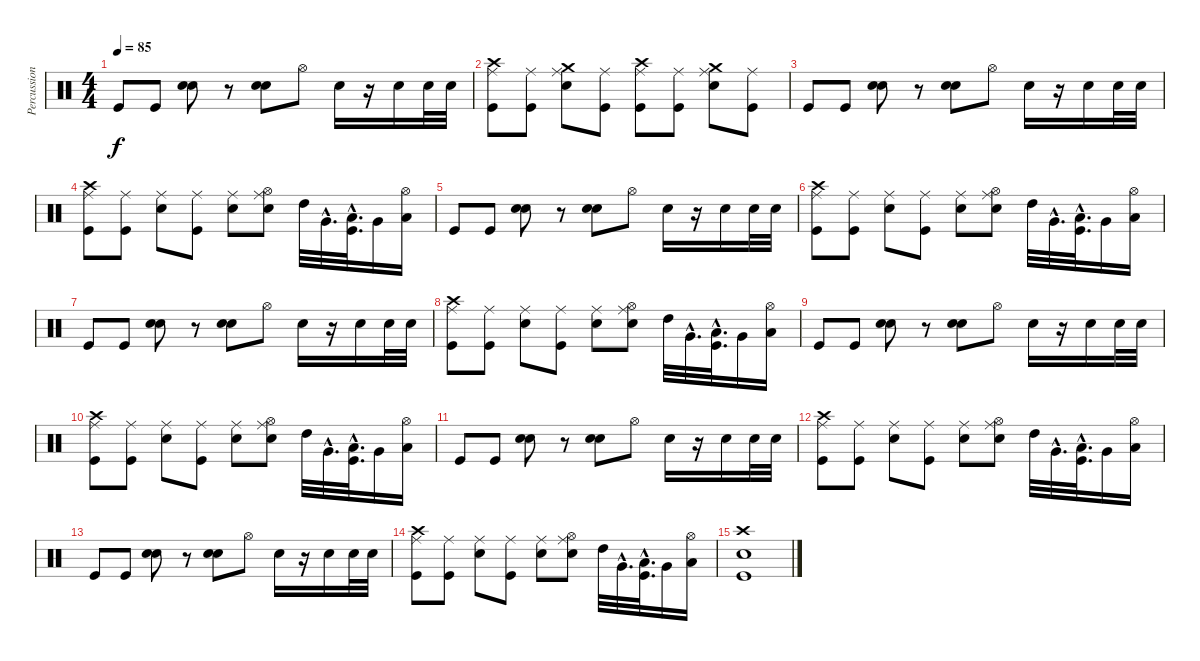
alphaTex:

\track ("Percussions" "Percussion") {instrument percussion}
\staff {score}
\articulation defaults
\ts (4 4)
\tempo 85
\clef neutral
\ks c "Kick (hit)".8{dy f} "Kick (hit)".8
("Electric Snare (hit)" "Snare (hit) 2").8{bu 120} r.8 ("Electric Snare (hit)" "Snare (hit) 2").8{bu 120} "Hi-Hat (open)".8 "Electric Snare (hit)".16 r.16 "Electric Snare (hit)".16 "Electric Snare (hit)".32 "Electric Snare (hit)".32 |
("Ride (middle)" "Crash high (hit)" "Kick (hit)").8 ("Ride (middle)" "Kick (hit)").8 ("Ride (middle)" "Crash medium (hit)" "Electric Snare (hit)").8 ("Ride (middle)" "Kick (hit)").8 ("Ride (middle)" "Crash high (hit)" "Kick (hit)").8 ("Ride (middle)" "Kick (hit)").8 ("Ride (middle)" "Crash medium (hit)" "Electric Snare (hit)").8 ("Ride (middle)" "Kick (hit)").8 |
"Kick (hit)".8 "Kick (hit)".8 ("Electric Snare (hit)" "Snare (hit) 2").8{bu 120} r.8 ("Electric Snare (hit)" "Snare (hit) 2").8{bu 120} "Hi-Hat (open)".8 "Electric Snare (hit)".16 r.16 "Electric Snare (hit)".16 "Electric Snare (hit)".32 "Electric Snare (hit)".32 |
("Ride (middle)" "Crash high (hit)" "Kick (hit)").8 ("Ride (middle)" "Kick (hit)").8 ("Ride (middle)" "Electric Snare (hit)").8 ("Ride (middle)" "Kick (hit)").8 ("Ride (middle)" "Electric Snare (hit)").8 ("Ride (middle)" "Hi-Hat (open)" "Electric Snare (hit)").8 "High Tom (hit)".32 "Very Low Tom (hit)"{hac}.32{d} ("Low Tom (hit)"{hac} "Kick (hit)"{hac}).32{d} "Very Low Tom (hit)".16 ("Hi-Hat (open)" "Low Floor Tom (hit)").16 |
"Kick (hit)".8 "Kick (hit)".8 ("Electric Snare (hit)" "Snare (hit) 2").8{bu 120} r.8 ("Electric Snare (hit)" "Snare (hit) 2").8{bu 120} "Hi-Hat (open)".8 "Electric Snare (hit)".16 r.16 "Electric Snare (hit)".16 "Electric Snare (hit)".32 "Electric Snare (hit)".32 |
("Ride (middle)" "Crash high (hit)" "Kick (hit)").8 ("Ride (middle)" "Kick (hit)").8 ("Ride (middle)" "Electric Snare (hit)").8 ("Ride (middle)" "Kick (hit)").8 ("Ride (middle)" "Electric Snare (hit)").8 ("Ride (middle)" "Hi-Hat (open)" "Electric Snare (hit)").8 "High Tom (hit)".32 "Very Low Tom (hit)"{hac}.32{d} ("Low Tom (hit)"{hac} "Kick (hit)"{hac}).32{d} "Very Low Tom (hit)".16 ("Hi-Hat (open)" "Low Floor Tom (hit)").16 |
"Kick (hit)".8 "Kick (hit)".8 ("Electric Snare (hit)" "Snare (hit) 2").8{bu 120} r.8 ("Electric Snare (hit)" "Snare (hit) 2").8{bu 120} "Hi-Hat (open)".8 "Electric Snare (hit)".16 r.16 "Electric Snare (hit)".16 "Electric Snare (hit)".32 "Electric Snare (hit)".32 |
("Ride (middle)" "Crash high (hit)" "Kick (hit)").8 ("Ride (middle)" "Kick (hit)").8 ("Ride (middle)" "Electric Snare (hit)").8 ("Ride (middle)" "Kick (hit)").8 ("Ride (middle)" "Electric Snare (hit)").8 ("Ride (middle)" "Hi-Hat (open)" "Electric Snare (hit)").8 "High Tom (hit)".32 "Very Low Tom (hit)"{hac}.32{d} ("Low Tom (hit)"{hac} "Kick (hit)"{hac}).32{d} "Very Low Tom (hit)".16 ("Hi-Hat (open)" "Low Floor Tom (hit)").16 |
"Kick (hit)".8 "Kick (hit)".8 ("Electric Snare (hit)" "Snare (hit) 2").8{bu 120} r.8 ("Electric Snare (hit)" "Snare (hit) 2").8{bu 120} "Hi-Hat (open)".8 "Electric Snare (hit)".16 r.16 "Electric Snare (hit)".16 "Electric Snare (hit)".32 "Electric Snare (hit)".32 |
("Ride (middle)" "Crash high (hit)" "Kick (hit)").8 ("Ride (middle)" "Kick (hit)").8 ("Ride (middle)" "Electric Snare (hit)").8 ("Ride (middle)" "Kick (hit)").8 ("Ride (middle)" "Electric Snare (hit)").8 ("Ride (middle)" "Hi-Hat (open)" "Electric Snare (hit)").8 "High Tom (hit)".32 "Very Low Tom (hit)"{hac}.32{d} ("Low Tom (hit)"{hac} "Kick (hit)"{hac}).32{d} "Very Low Tom (hit)".16 ("Hi-Hat (open)" "Low Floor Tom (hit)").16 |
"Kick (hit)".8 "Kick (hit)".8 ("Electric Snare (hit)" "Snare (hit) 2").8{bu 120} r.8 ("Electric Snare (hit)" "Snare (hit) 2").8{bu 120} "Hi-Hat (open)".8 "Electric Snare (hit)".16 r.16 "Electric Snare (hit)".16 "Electric Snare (hit)".32 "Electric Snare (hit)".32 |
("Ride (middle)" "Crash high (hit)" "Kick (hit)").8 ("Ride (middle)" "Kick (hit)").8 ("Ride (middle)" "Electric Snare (hit)").8 ("Ride (middle)" "Kick (hit)").8 ("Ride (middle)" "Electric Snare (hit)").8 ("Ride (middle)" "Hi-Hat (open)" "Electric Snare (hit)").8 "High Tom (hit)".32 "Very Low Tom (hit)"{hac}.32{d} ("Low Tom (hit)"{hac} "Kick (hit)"{hac}).32{d} "Very Low Tom (hit)".16 ("Hi-Hat (open)" "Low Floor Tom (hit)").16 |
"Kick (hit)".8 "Kick (hit)".8 ("Electric Snare (hit)" "Snare (hit) 2").8{bu 120} r.8 ("Electric Snare (hit)" "Snare (hit) 2").8{bu 120} "Hi-Hat (open)".8 "Electric Snare (hit)".16 r.16 "Electric Snare (hit)".16 "Electric Snare (hit)".32 "Electric Snare (hit)".32 |
("Ride (middle)" "Crash high (hit)" "Kick (hit)").8 ("Ride (middle)" "Kick (hit)").8 ("Ride (middle)" "Electric Snare (hit)").8 ("Ride (middle)" "Kick (hit)").8 ("Ride (middle)" "Electric Snare (hit)").8 ("Ride (middle)" "Hi-Hat (open)" "Electric Snare (hit)").8 "High Tom (hit)".32 "Very Low Tom (hit)"{hac}.32{d} ("Low Tom (hit)"{hac} "Kick (hit)"{hac}).32{d} "Very Low Tom (hit)".16 ("Hi-Hat (open)" "Low Floor Tom (hit)").16 |
("Crash high (hit)" "Snare (hit) 2" "Kick (hit)").1
